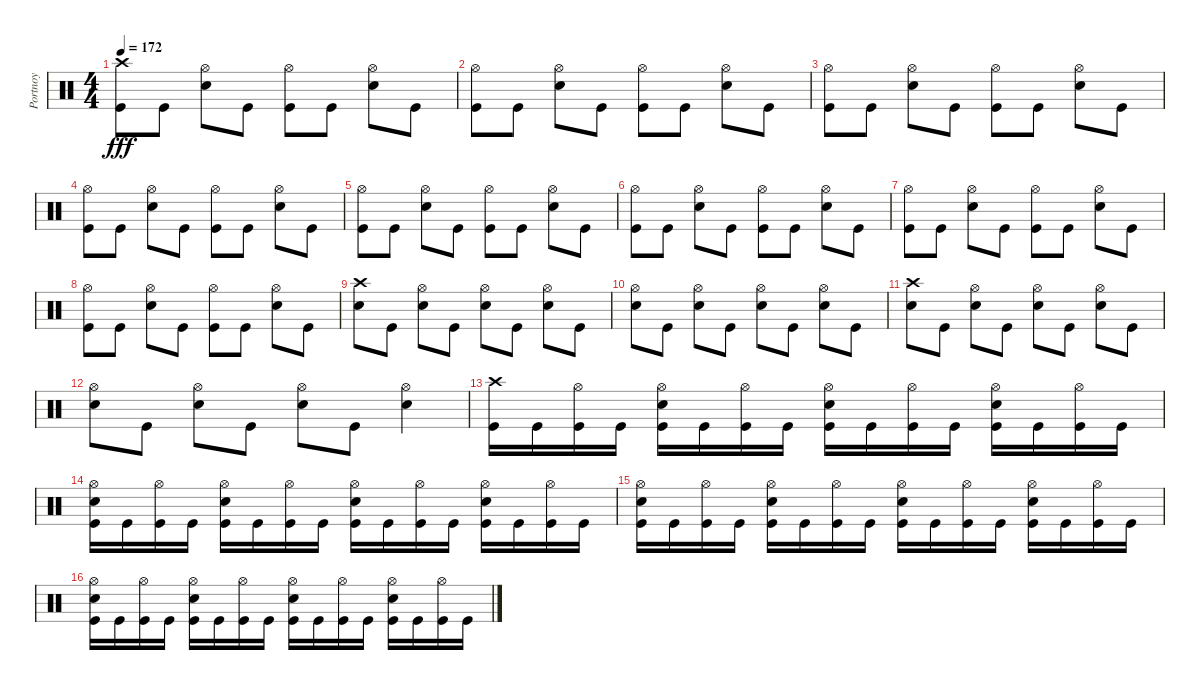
\track ("Portnoy" "Portnoy") {instrument percussion}
\staff {score}
\articulation defaults
\ts (4 4)
\tempo 172
\clef neutral
\ks c
("Crash high (hit)" "Kick (hit)").8{dy fff} "Kick (hit)".8 ("Hi-Hat (open)" "Snare (hit) 2").8 "Kick (hit)".8 ("Hi-Hat (open)" "Kick (hit)").8 "Kick (hit)".8 ("Hi-Hat (open)" "Snare (hit) 2").8 "Kick (hit)".8 |
("Hi-Hat (open)" "Kick (hit)").8 "Kick (hit)".8 ("Hi-Hat (open)" "Snare (hit) 2").8 "Kick (hit)".8 ("Hi-Hat (open)" "Kick (hit)").8 "Kick (hit)".8 ("Hi-Hat (open)" "Snare (hit) 2").8 "Kick (hit)".8 |
("Hi-Hat (open)" "Kick (hit)").8 "Kick (hit)".8 ("Hi-Hat (open)" "Snare (hit) 2").8 "Kick (hit)".8 ("Hi-Hat (open)" "Kick (hit)").8 "Kick (hit)".8 ("Hi-Hat (open)" "Snare (hit) 2").8 "Kick (hit)".8 |
("Hi-Hat (open)" "Kick (hit)").8 "Kick (hit)".8 ("Hi-Hat (open)" "Snare (hit) 2").8 "Kick (hit)".8 ("Hi-Hat (open)" "Kick (hit)").8 "Kick (hit)".8 ("Hi-Hat (open)" "Snare (hit) 2").8 "Kick (hit)".8 |
("Hi-Hat (open)" "Kick (hit)").8 "Kick (hit)".8 ("Hi-Hat (open)" "Snare (hit) 2").8 "Kick (hit)".8 ("Hi-Hat (open)" "Kick (hit)").8 "Kick (hit)".8 ("Hi-Hat (open)" "Snare (hit) 2").8 "Kick (hit)".8 |
("Hi-Hat (open)" "Kick (hit)").8 "Kick (hit)".8 ("Hi-Hat (open)" "Snare (hit) 2").8 "Kick (hit)".8 ("Hi-Hat (open)" "Kick (hit)").8 "Kick (hit)".8 ("Hi-Hat (open)" "Snare (hit) 2").8 "Kick (hit)".8 |
("Hi-Hat (open)" "Kick (hit)").8 "Kick (hit)".8 ("Hi-Hat (open)" "Snare (hit) 2").8 "Kick (hit)".8 ("Hi-Hat (open)" "Kick (hit)").8 "Kick (hit)".8 ("Hi-Hat (open)" "Snare (hit) 2").8 "Kick (hit)".8 |
("Hi-Hat (open)" "Kick (hit)").8 "Kick (hit)".8 ("Hi-Hat (open)" "Snare (hit) 2").8 "Kick (hit)".8 ("Hi-Hat (open)" "Kick (hit)").8 "Kick (hit)".8 ("Hi-Hat (open)" "Snare (hit) 2").8 "Kick (hit)".8 |
("Crash high (hit)" "Snare (hit) 2").8 "Kick (hit)".8 ("Hi-Hat (open)" "Snare (hit) 2").8 "Kick (hit)".8 ("Hi-Hat (open)" "Snare (hit) 2").8 "Kick (hit)".8 ("Hi-Hat (open)" "Snare (hit) 2").8 "Kick (hit)".8 |
("Hi-Hat (open)" "Snare (hit) 2").8 "Kick (hit)".8 ("Hi-Hat (open)" "Snare (hit) 2").8 "Kick (hit)".8 ("Hi-Hat (open)" "Snare (hit) 2").8 "Kick (hit)".8 ("Hi-Hat (open)" "Snare (hit) 2").8 "Kick (hit)".8 |
("Crash high (hit)" "Snare (hit) 2").8 "Kick (hit)".8 ("Hi-Hat (open)" "Snare (hit) 2").8 "Kick (hit)".8 ("Hi-Hat (open)" "Snare (hit) 2").8 "Kick (hit)".8 ("Hi-Hat (open)" "Snare (hit) 2").8 "Kick (hit)".8 |
("Hi-Hat (open)" "Snare (hit) 2").8 "Kick (hit)".8 ("Hi-Hat (open)" "Snare (hit) 2").8 "Kick (hit)".8 ("Hi-Hat (open)" "Snare (hit) 2").8 "Kick (hit)".8 ("Hi-Hat (open)" "Snare (hit) 2").4 |
("Crash high (hit)" "Kick (hit)").16 "Kick (hit)".16 ("Hi-Hat (open)" "Kick (hit)").16 "Kick (hit)".16 ("Hi-Hat (open)" "Snare (hit) 2" "Kick (hit)").16 "Kick (hit)".16 ("Hi-Hat (open)" "Kick (hit)").16 "Kick (hit)".16 ("Hi-Hat (open)" "Snare (hit) 2" "Kick (hit)").16 "Kick (hit)".16 ("Hi-Hat (open)" "Kick (hit)").16 "Kick (hit)".16 ("Hi-Hat (open)" "Snare (hit) 2" "Kick (hit)").16 "Kick (hit)".16 ("Hi-Hat (open)" "Kick (hit)").16 "Kick (hit)".16 |
("Hi-Hat (open)" "Snare (hit) 2" "Kick (hit)").16 "Kick (hit)".16 ("Hi-Hat (open)" "Kick (hit)").16 "Kick (hit)".16 ("Hi-Hat (open)" "Snare (hit) 2" "Kick (hit)").16 "Kick (hit)".16 ("Hi-Hat (open)" "Kick (hit)").16 "Kick (hit)".16 ("Hi-Hat (open)" "Snare (hit) 2" "Kick (hit)").16 "Kick (hit)".16 ("Hi-Hat (open)" "Kick (hit)").16 "Kick (hit)".16 ("Hi-Hat (open)" "Snare (hit) 2" "Kick (hit)").16 "Kick (hit)".16 ("Hi-Hat (open)" "Kick (hit)").16 "Kick (hit)".16 |
("Hi-Hat (open)" "Snare (hit) 2" "Kick (hit)").16 "Kick (hit)".16 ("Hi-Hat (open)" "Kick (hit)").16 "Kick (hit)".16 ("Hi-Hat (open)" "Snare (hit) 2" "Kick (hit)").16 "Kick (hit)".16 ("Hi-Hat (open)" "Kick (hit)").16 "Kick (hit)".16 ("Hi-Hat (open)" "Snare (hit) 2" "Kick (hit)").16 "Kick (hit)".16 ("Hi-Hat (open)" "Kick (hit)").16 "Kick (hit)".16 ("Hi-Hat (open)" "Snare (hit) 2" "Kick (hit)").16 "Kick (hit)".16 ("Hi-Hat (open)" "Kick (hit)").16 "Kick (hit)".16 |
("Hi-Hat (open)" "Snare (hit) 2" "Kick (hit)").16 "Kick (hit)".16 ("Hi-Hat (open)" "Kick (hit)").16 "Kick (hit)".16 ("Hi-Hat (open)" "Snare (hit) 2" "Kick (hit)").16 "Kick (hit)".16 ("Hi-Hat (open)" "Kick (hit)").16 "Kick (hit)".16 ("Hi-Hat (open)" "Snare (hit) 2" "Kick (hit)").16 "Kick (hit)".16 ("Hi-Hat (open)" "Kick (hit)").16 "Kick (hit)".16 ("Hi-Hat (open)" "Snare (hit) 2" "Kick (hit)").16 "Kick (hit)".16 ("Hi-Hat (open)" "Kick (hit)").16 "Kick (hit)".16
